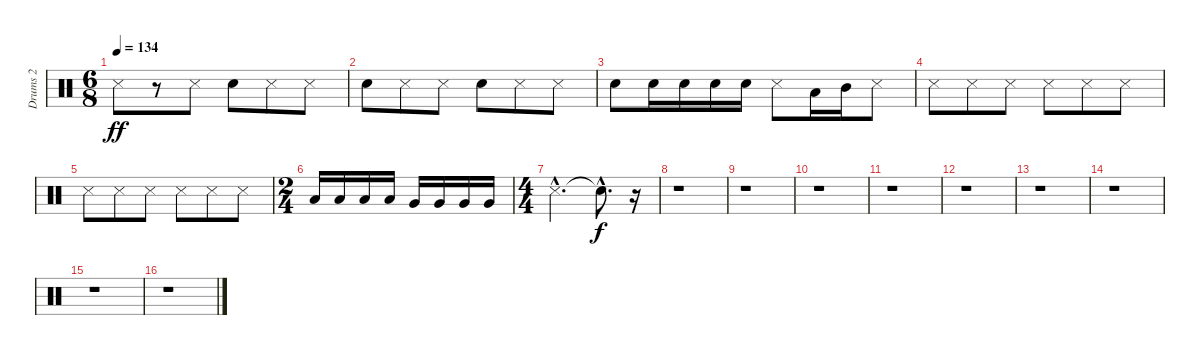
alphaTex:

\track ("Drums 2" "Drums 2") {instrument percussion}
\staff {score}
\articulation defaults
\ts (6 8)
\tempo 134
\clef neutral
\ks c "Metronome (hit)".8{dy ff}
r.8 "Metronome (hit)".8 "Snare (hit) 2".8 "Metronome (hit)".8 "Metronome (hit)".8 |
"Snare (hit) 2".8 "Metronome (hit)".8 "Metronome (hit)".8 "Snare (hit) 2".8 "Metronome (hit)".8 "Metronome (hit)".8 |
"Snare (hit) 2".8 "Snare (hit) 2".16 "Snare (hit) 2".16 "Snare (hit) 2".16 "Snare (hit) 2".16 "Metronome (hit)".8 "Low Tom (hit)".16 "Mid Tom (hit)".16 "Metronome (hit)".8 |
"Metronome (hit)".8 "Metronome (hit)".8 "Metronome (hit)".8 "Metronome (hit)".8 "Metronome (hit)".8 "Metronome (hit)".8 |
"Metronome (hit)".8 "Metronome (hit)".8 "Metronome (hit)".8 "Metronome (hit)".8 "Metronome (hit)".8 "Metronome (hit)".8 |
\ts (2 4)
"Low Tom (hit)".16 "Low Tom (hit)".16 "Low Tom (hit)".16 "Low Tom (hit)".16 "Very Low Tom (hit)".16 "Very Low Tom (hit)".16 "Very Low Tom (hit)".16 "Very Low Tom (hit)".16 |
\ts (4 4)
"Metronome (hit)"{hac}.2{d} "Snare (hit)"{hac t}.8{d dy f} r.16 |
r.1 |
r.1 |
r.1 |
r.1 |
r.1 |
r.1 |
r.1 |
r.1 |
r.1
